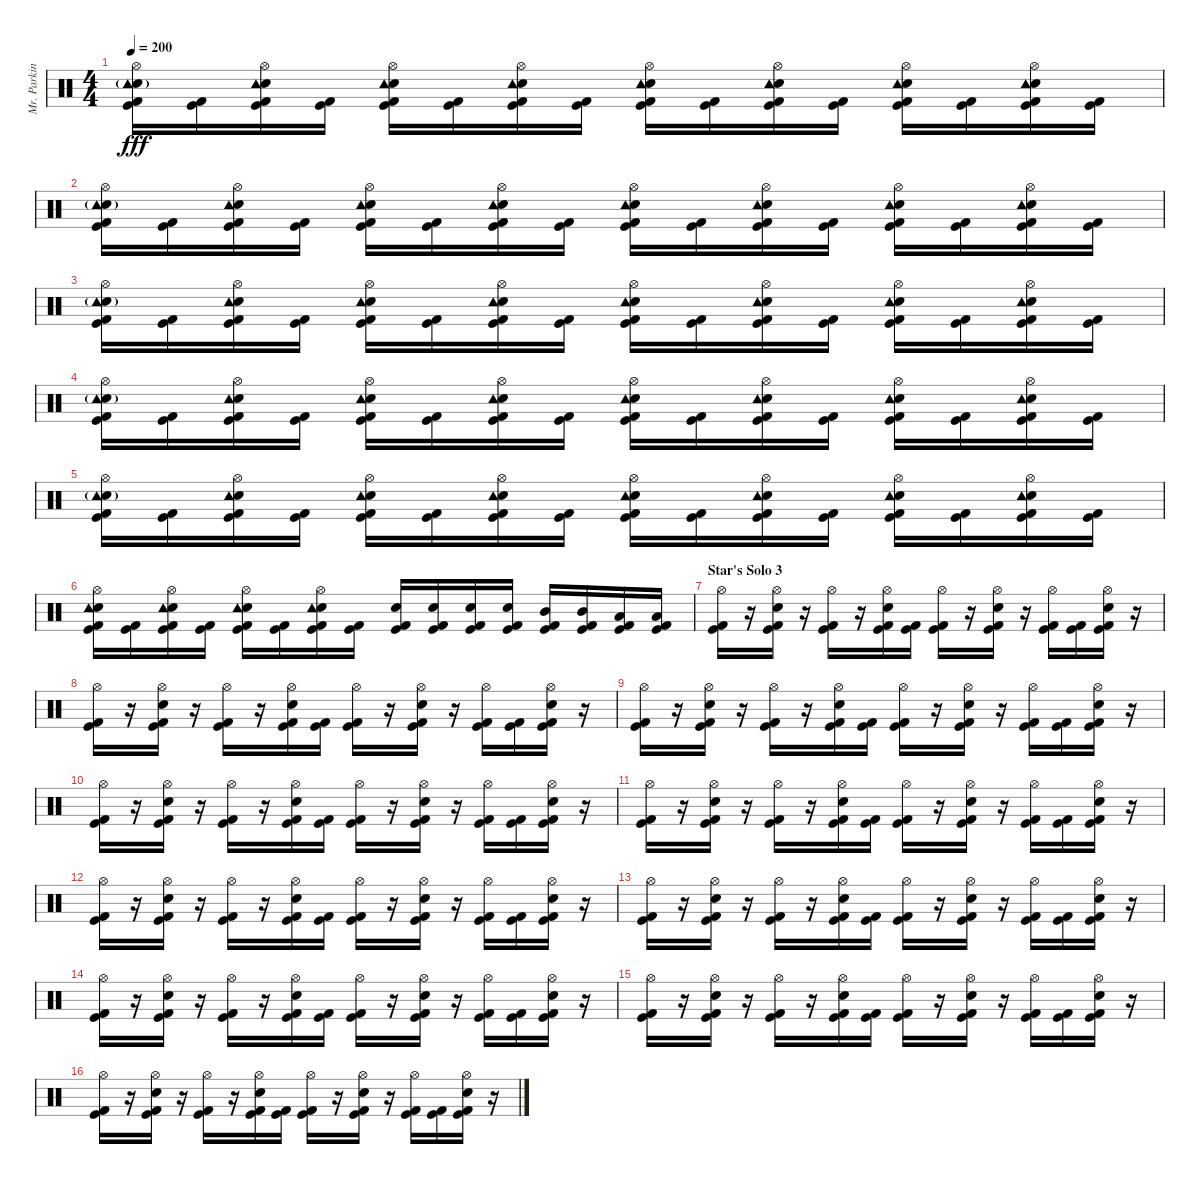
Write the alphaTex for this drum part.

\track ("Mr. Parkinson" "Mr. Parkin") {instrument percussion}
\staff {score}
\articulation defaults
\ts (4 4)
\tempo 200
\clef neutral
\ks c
("Hi-Hat (open)" "Electric Snare (hit)" "Tambourine (hit)"{g} "Kick (hit)" "Kick (hit) 2").16{dy fff} ("Kick (hit)" "Kick (hit) 2").16 ("Hi-Hat (open)" "Electric Snare (hit)" "Tambourine (hit)" "Kick (hit)" "Kick (hit) 2").16 ("Kick (hit)" "Kick (hit) 2").16 ("Hi-Hat (open)" "Electric Snare (hit)" "Tambourine (hit)" "Kick (hit)" "Kick (hit) 2").16 ("Kick (hit)" "Kick (hit) 2").16 ("Hi-Hat (open)" "Electric Snare (hit)" "Tambourine (hit)" "Kick (hit)" "Kick (hit) 2").16 ("Kick (hit)" "Kick (hit) 2").16 ("Hi-Hat (open)" "Electric Snare (hit)" "Tambourine (hit)" "Kick (hit)" "Kick (hit) 2").16 ("Kick (hit)" "Kick (hit) 2").16 ("Hi-Hat (open)" "Electric Snare (hit)" "Tambourine (hit)" "Kick (hit)" "Kick (hit) 2").16 ("Kick (hit)" "Kick (hit) 2").16 ("Hi-Hat (open)" "Electric Snare (hit)" "Tambourine (hit)" "Kick (hit)" "Kick (hit) 2").16 ("Kick (hit)" "Kick (hit) 2").16 ("Hi-Hat (open)" "Electric Snare (hit)" "Tambourine (hit)" "Kick (hit)" "Kick (hit) 2").16 ("Kick (hit)" "Kick (hit) 2").16 |
("Hi-Hat (open)" "Electric Snare (hit)" "Tambourine (hit)"{g} "Kick (hit)" "Kick (hit) 2").16 ("Kick (hit)" "Kick (hit) 2").16 ("Hi-Hat (open)" "Electric Snare (hit)" "Tambourine (hit)" "Kick (hit)" "Kick (hit) 2").16 ("Kick (hit)" "Kick (hit) 2").16 ("Hi-Hat (open)" "Electric Snare (hit)" "Tambourine (hit)" "Kick (hit)" "Kick (hit) 2").16 ("Kick (hit)" "Kick (hit) 2").16 ("Hi-Hat (open)" "Electric Snare (hit)" "Tambourine (hit)" "Kick (hit)" "Kick (hit) 2").16 ("Kick (hit)" "Kick (hit) 2").16 ("Hi-Hat (open)" "Electric Snare (hit)" "Tambourine (hit)" "Kick (hit)" "Kick (hit) 2").16 ("Kick (hit)" "Kick (hit) 2").16 ("Hi-Hat (open)" "Electric Snare (hit)" "Tambourine (hit)" "Kick (hit)" "Kick (hit) 2").16 ("Kick (hit)" "Kick (hit) 2").16 ("Hi-Hat (open)" "Electric Snare (hit)" "Tambourine (hit)" "Kick (hit)" "Kick (hit) 2").16 ("Kick (hit)" "Kick (hit) 2").16 ("Hi-Hat (open)" "Electric Snare (hit)" "Tambourine (hit)" "Kick (hit)" "Kick (hit) 2").16 ("Kick (hit)" "Kick (hit) 2").16 |
("Hi-Hat (open)" "Electric Snare (hit)" "Tambourine (hit)"{g} "Kick (hit)" "Kick (hit) 2").16 ("Kick (hit)" "Kick (hit) 2").16 ("Hi-Hat (open)" "Electric Snare (hit)" "Tambourine (hit)" "Kick (hit)" "Kick (hit) 2").16 ("Kick (hit)" "Kick (hit) 2").16 ("Hi-Hat (open)" "Electric Snare (hit)" "Tambourine (hit)" "Kick (hit)" "Kick (hit) 2").16 ("Kick (hit)" "Kick (hit) 2").16 ("Hi-Hat (open)" "Electric Snare (hit)" "Tambourine (hit)" "Kick (hit)" "Kick (hit) 2").16 ("Kick (hit)" "Kick (hit) 2").16 ("Hi-Hat (open)" "Electric Snare (hit)" "Tambourine (hit)" "Kick (hit)" "Kick (hit) 2").16 ("Kick (hit)" "Kick (hit) 2").16 ("Hi-Hat (open)" "Electric Snare (hit)" "Tambourine (hit)" "Kick (hit)" "Kick (hit) 2").16 ("Kick (hit)" "Kick (hit) 2").16 ("Hi-Hat (open)" "Electric Snare (hit)" "Tambourine (hit)" "Kick (hit)" "Kick (hit) 2").16 ("Kick (hit)" "Kick (hit) 2").16 ("Hi-Hat (open)" "Electric Snare (hit)" "Tambourine (hit)" "Kick (hit)" "Kick (hit) 2").16 ("Kick (hit)" "Kick (hit) 2").16 |
("Hi-Hat (open)" "Electric Snare (hit)" "Tambourine (hit)"{g} "Kick (hit)" "Kick (hit) 2").16 ("Kick (hit)" "Kick (hit) 2").16 ("Hi-Hat (open)" "Electric Snare (hit)" "Tambourine (hit)" "Kick (hit)" "Kick (hit) 2").16 ("Kick (hit)" "Kick (hit) 2").16 ("Hi-Hat (open)" "Electric Snare (hit)" "Tambourine (hit)" "Kick (hit)" "Kick (hit) 2").16 ("Kick (hit)" "Kick (hit) 2").16 ("Hi-Hat (open)" "Electric Snare (hit)" "Tambourine (hit)" "Kick (hit)" "Kick (hit) 2").16 ("Kick (hit)" "Kick (hit) 2").16 ("Hi-Hat (open)" "Electric Snare (hit)" "Tambourine (hit)" "Kick (hit)" "Kick (hit) 2").16 ("Kick (hit)" "Kick (hit) 2").16 ("Hi-Hat (open)" "Electric Snare (hit)" "Tambourine (hit)" "Kick (hit)" "Kick (hit) 2").16 ("Kick (hit)" "Kick (hit) 2").16 ("Hi-Hat (open)" "Electric Snare (hit)" "Tambourine (hit)" "Kick (hit)" "Kick (hit) 2").16 ("Kick (hit)" "Kick (hit) 2").16 ("Hi-Hat (open)" "Electric Snare (hit)" "Tambourine (hit)" "Kick (hit)" "Kick (hit) 2").16 ("Kick (hit)" "Kick (hit) 2").16 |
("Hi-Hat (open)" "Electric Snare (hit)" "Tambourine (hit)"{g} "Kick (hit)" "Kick (hit) 2").16 ("Kick (hit)" "Kick (hit) 2").16 ("Hi-Hat (open)" "Electric Snare (hit)" "Tambourine (hit)" "Kick (hit)" "Kick (hit) 2").16 ("Kick (hit)" "Kick (hit) 2").16 ("Hi-Hat (open)" "Electric Snare (hit)" "Tambourine (hit)" "Kick (hit)" "Kick (hit) 2").16 ("Kick (hit)" "Kick (hit) 2").16 ("Hi-Hat (open)" "Electric Snare (hit)" "Tambourine (hit)" "Kick (hit)" "Kick (hit) 2").16 ("Kick (hit)" "Kick (hit) 2").16 ("Hi-Hat (open)" "Electric Snare (hit)" "Tambourine (hit)" "Kick (hit)" "Kick (hit) 2").16 ("Kick (hit)" "Kick (hit) 2").16 ("Hi-Hat (open)" "Electric Snare (hit)" "Tambourine (hit)" "Kick (hit)" "Kick (hit) 2").16 ("Kick (hit)" "Kick (hit) 2").16 ("Hi-Hat (open)" "Electric Snare (hit)" "Tambourine (hit)" "Kick (hit)" "Kick (hit) 2").16 ("Kick (hit)" "Kick (hit) 2").16 ("Hi-Hat (open)" "Electric Snare (hit)" "Tambourine (hit)" "Kick (hit)" "Kick (hit) 2").16 ("Kick (hit)" "Kick (hit) 2").16 |
("Hi-Hat (open)" "Electric Snare (hit)" "Tambourine (hit)" "Kick (hit)" "Kick (hit) 2").16 ("Kick (hit)" "Kick (hit) 2").16 ("Hi-Hat (open)" "Electric Snare (hit)" "Tambourine (hit)" "Kick (hit)" "Kick (hit) 2").16 ("Kick (hit)" "Kick (hit) 2").16 ("Hi-Hat (open)" "Electric Snare (hit)" "Tambourine (hit)" "Kick (hit)" "Kick (hit) 2").16 ("Kick (hit)" "Kick (hit) 2").16 ("Hi-Hat (open)" "Electric Snare (hit)" "Tambourine (hit)" "Kick (hit)" "Kick (hit) 2").16 ("Kick (hit)" "Kick (hit) 2").16 ("Electric Snare (hit)" "Kick (hit)" "Kick (hit) 2").16 ("Electric Snare (hit)" "Kick (hit)" "Kick (hit) 2").16 ("Electric Snare (hit)" "Kick (hit)" "Kick (hit) 2").16 ("Electric Snare (hit)" "Kick (hit)" "Kick (hit) 2").16 ("Mid Tom (hit)" "Kick (hit)" "Kick (hit) 2").16 ("Mid Tom (hit)" "Kick (hit)" "Kick (hit) 2").16 ("Low Tom (hit)" "Kick (hit)" "Kick (hit) 2").16 ("Low Tom (hit)" "Kick (hit)" "Kick (hit) 2").16 |
\section ("" "Star's Solo 3")
("Hi-Hat (open)" "Kick (hit)" "Kick (hit) 2").16 r.16 ("Hi-Hat (open)" "Electric Snare (hit)" "Kick (hit)" "Kick (hit) 2").16 r.16 ("Hi-Hat (open)" "Kick (hit)" "Kick (hit) 2").16 r.16 ("Hi-Hat (open)" "Electric Snare (hit)" "Kick (hit)" "Kick (hit) 2").16 ("Kick (hit)" "Kick (hit) 2").16 ("Hi-Hat (open)" "Kick (hit)" "Kick (hit) 2").16 r.16 ("Hi-Hat (open)" "Electric Snare (hit)" "Kick (hit)" "Kick (hit) 2").16 r.16 ("Hi-Hat (open)" "Kick (hit)" "Kick (hit) 2").16 ("Kick (hit)" "Kick (hit) 2").16 ("Hi-Hat (open)" "Electric Snare (hit)" "Kick (hit)" "Kick (hit) 2").16 r.16 |
("Hi-Hat (open)" "Kick (hit)" "Kick (hit) 2").16 r.16 ("Hi-Hat (open)" "Electric Snare (hit)" "Kick (hit)" "Kick (hit) 2").16 r.16 ("Hi-Hat (open)" "Kick (hit)" "Kick (hit) 2").16 r.16 ("Hi-Hat (open)" "Electric Snare (hit)" "Kick (hit)" "Kick (hit) 2").16 ("Kick (hit)" "Kick (hit) 2").16 ("Hi-Hat (open)" "Kick (hit)" "Kick (hit) 2").16 r.16 ("Hi-Hat (open)" "Electric Snare (hit)" "Kick (hit)" "Kick (hit) 2").16 r.16 ("Hi-Hat (open)" "Kick (hit)" "Kick (hit) 2").16 ("Kick (hit)" "Kick (hit) 2").16 ("Hi-Hat (open)" "Electric Snare (hit)" "Kick (hit)" "Kick (hit) 2").16 r.16 |
("Hi-Hat (open)" "Kick (hit)" "Kick (hit) 2").16 r.16 ("Hi-Hat (open)" "Electric Snare (hit)" "Kick (hit)" "Kick (hit) 2").16 r.16 ("Hi-Hat (open)" "Kick (hit)" "Kick (hit) 2").16 r.16 ("Hi-Hat (open)" "Electric Snare (hit)" "Kick (hit)" "Kick (hit) 2").16 ("Kick (hit)" "Kick (hit) 2").16 ("Hi-Hat (open)" "Kick (hit)" "Kick (hit) 2").16 r.16 ("Hi-Hat (open)" "Electric Snare (hit)" "Kick (hit)" "Kick (hit) 2").16 r.16 ("Hi-Hat (open)" "Kick (hit)" "Kick (hit) 2").16 ("Kick (hit)" "Kick (hit) 2").16 ("Hi-Hat (open)" "Electric Snare (hit)" "Kick (hit)" "Kick (hit) 2").16 r.16 |
("Hi-Hat (open)" "Kick (hit)" "Kick (hit) 2").16 r.16 ("Hi-Hat (open)" "Electric Snare (hit)" "Kick (hit)" "Kick (hit) 2").16 r.16 ("Hi-Hat (open)" "Kick (hit)" "Kick (hit) 2").16 r.16 ("Hi-Hat (open)" "Electric Snare (hit)" "Kick (hit)" "Kick (hit) 2").16 ("Kick (hit)" "Kick (hit) 2").16 ("Hi-Hat (open)" "Kick (hit)" "Kick (hit) 2").16 r.16 ("Hi-Hat (open)" "Electric Snare (hit)" "Kick (hit)" "Kick (hit) 2").16 r.16 ("Hi-Hat (open)" "Kick (hit)" "Kick (hit) 2").16 ("Kick (hit)" "Kick (hit) 2").16 ("Hi-Hat (open)" "Electric Snare (hit)" "Kick (hit)" "Kick (hit) 2").16 r.16 |
("Hi-Hat (open)" "Kick (hit)" "Kick (hit) 2").16 r.16 ("Hi-Hat (open)" "Electric Snare (hit)" "Kick (hit)" "Kick (hit) 2").16 r.16 ("Hi-Hat (open)" "Kick (hit)" "Kick (hit) 2").16 r.16 ("Hi-Hat (open)" "Electric Snare (hit)" "Kick (hit)" "Kick (hit) 2").16 ("Kick (hit)" "Kick (hit) 2").16 ("Hi-Hat (open)" "Kick (hit)" "Kick (hit) 2").16 r.16 ("Hi-Hat (open)" "Electric Snare (hit)" "Kick (hit)" "Kick (hit) 2").16 r.16 ("Hi-Hat (open)" "Kick (hit)" "Kick (hit) 2").16 ("Kick (hit)" "Kick (hit) 2").16 ("Hi-Hat (open)" "Electric Snare (hit)" "Kick (hit)" "Kick (hit) 2").16 r.16 |
("Hi-Hat (open)" "Kick (hit)" "Kick (hit) 2").16 r.16 ("Hi-Hat (open)" "Electric Snare (hit)" "Kick (hit)" "Kick (hit) 2").16 r.16 ("Hi-Hat (open)" "Kick (hit)" "Kick (hit) 2").16 r.16 ("Hi-Hat (open)" "Electric Snare (hit)" "Kick (hit)" "Kick (hit) 2").16 ("Kick (hit)" "Kick (hit) 2").16 ("Hi-Hat (open)" "Kick (hit)" "Kick (hit) 2").16 r.16 ("Hi-Hat (open)" "Electric Snare (hit)" "Kick (hit)" "Kick (hit) 2").16 r.16 ("Hi-Hat (open)" "Kick (hit)" "Kick (hit) 2").16 ("Kick (hit)" "Kick (hit) 2").16 ("Hi-Hat (open)" "Electric Snare (hit)" "Kick (hit)" "Kick (hit) 2").16 r.16 |
("Hi-Hat (open)" "Kick (hit)" "Kick (hit) 2").16 r.16 ("Hi-Hat (open)" "Electric Snare (hit)" "Kick (hit)" "Kick (hit) 2").16 r.16 ("Hi-Hat (open)" "Kick (hit)" "Kick (hit) 2").16 r.16 ("Hi-Hat (open)" "Electric Snare (hit)" "Kick (hit)" "Kick (hit) 2").16 ("Kick (hit)" "Kick (hit) 2").16 ("Hi-Hat (open)" "Kick (hit)" "Kick (hit) 2").16 r.16 ("Hi-Hat (open)" "Electric Snare (hit)" "Kick (hit)" "Kick (hit) 2").16 r.16 ("Hi-Hat (open)" "Kick (hit)" "Kick (hit) 2").16 ("Kick (hit)" "Kick (hit) 2").16 ("Hi-Hat (open)" "Electric Snare (hit)" "Kick (hit)" "Kick (hit) 2").16 r.16 |
("Hi-Hat (open)" "Kick (hit)" "Kick (hit) 2").16 r.16 ("Hi-Hat (open)" "Electric Snare (hit)" "Kick (hit)" "Kick (hit) 2").16 r.16 ("Hi-Hat (open)" "Kick (hit)" "Kick (hit) 2").16 r.16 ("Hi-Hat (open)" "Electric Snare (hit)" "Kick (hit)" "Kick (hit) 2").16 ("Kick (hit)" "Kick (hit) 2").16 ("Hi-Hat (open)" "Kick (hit)" "Kick (hit) 2").16 r.16 ("Hi-Hat (open)" "Electric Snare (hit)" "Kick (hit)" "Kick (hit) 2").16 r.16 ("Hi-Hat (open)" "Kick (hit)" "Kick (hit) 2").16 ("Kick (hit)" "Kick (hit) 2").16 ("Hi-Hat (open)" "Electric Snare (hit)" "Kick (hit)" "Kick (hit) 2").16 r.16 |
("Hi-Hat (open)" "Kick (hit)" "Kick (hit) 2").16 r.16 ("Hi-Hat (open)" "Electric Snare (hit)" "Kick (hit)" "Kick (hit) 2").16 r.16 ("Hi-Hat (open)" "Kick (hit)" "Kick (hit) 2").16 r.16 ("Hi-Hat (open)" "Electric Snare (hit)" "Kick (hit)" "Kick (hit) 2").16 ("Kick (hit)" "Kick (hit) 2").16 ("Hi-Hat (open)" "Kick (hit)" "Kick (hit) 2").16 r.16 ("Hi-Hat (open)" "Electric Snare (hit)" "Kick (hit)" "Kick (hit) 2").16 r.16 ("Hi-Hat (open)" "Kick (hit)" "Kick (hit) 2").16 ("Kick (hit)" "Kick (hit) 2").16 ("Hi-Hat (open)" "Electric Snare (hit)" "Kick (hit)" "Kick (hit) 2").16 r.16 |
("Hi-Hat (open)" "Kick (hit)" "Kick (hit) 2").16 r.16 ("Hi-Hat (open)" "Electric Snare (hit)" "Kick (hit)" "Kick (hit) 2").16 r.16 ("Hi-Hat (open)" "Kick (hit)" "Kick (hit) 2").16 r.16 ("Hi-Hat (open)" "Electric Snare (hit)" "Kick (hit)" "Kick (hit) 2").16 ("Kick (hit)" "Kick (hit) 2").16 ("Hi-Hat (open)" "Kick (hit)" "Kick (hit) 2").16 r.16 ("Hi-Hat (open)" "Electric Snare (hit)" "Kick (hit)" "Kick (hit) 2").16 r.16 ("Hi-Hat (open)" "Kick (hit)" "Kick (hit) 2").16 ("Kick (hit)" "Kick (hit) 2").16 ("Hi-Hat (open)" "Electric Snare (hit)" "Kick (hit)" "Kick (hit) 2").16 r.16
